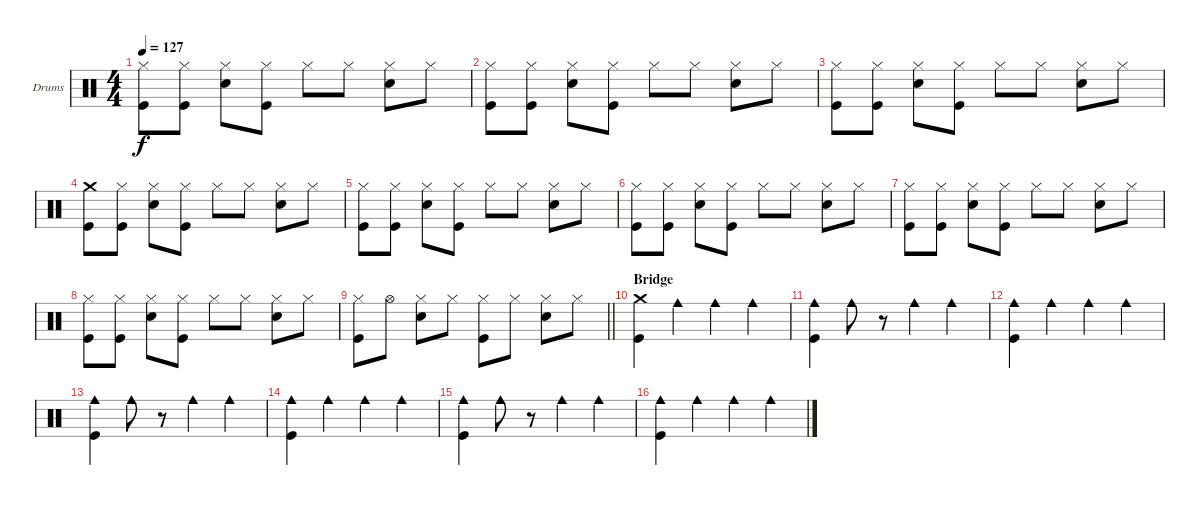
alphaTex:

\bracketExtendMode groupsimilarinstruments
\firstSystemTrackNameOrientation horizontal
\otherSystemsTrackNameOrientation horizontal
\track ("Drumkit" "Drums") {instrument percussion}
\staff {score}
\articulation defaults
\ts (4 4)
\tempo 127
\clef neutral
\ks c
("Hi-Hat (closed)" "Kick (hit)").8{dy f} ("Hi-Hat (closed)" "Kick (hit)").8 ("Hi-Hat (closed)" "Snare (hit) 2").8 ("Hi-Hat (closed)" "Kick (hit)").8 "Hi-Hat (closed)".8 "Hi-Hat (closed)".8 ("Hi-Hat (closed)" "Snare (hit) 2").8 "Hi-Hat (closed)".8 |
("Hi-Hat (closed)" "Kick (hit)").8 ("Hi-Hat (closed)" "Kick (hit)").8 ("Hi-Hat (closed)" "Snare (hit) 2").8 ("Hi-Hat (closed)" "Kick (hit)").8 "Hi-Hat (closed)".8 "Hi-Hat (closed)".8 ("Hi-Hat (closed)" "Snare (hit) 2").8 "Hi-Hat (closed)".8 |
("Hi-Hat (closed)" "Kick (hit)").8 ("Hi-Hat (closed)" "Kick (hit)").8 ("Hi-Hat (closed)" "Snare (hit) 2").8 ("Hi-Hat (closed)" "Kick (hit)").8 "Hi-Hat (closed)".8 "Hi-Hat (closed)".8 ("Hi-Hat (closed)" "Snare (hit) 2").8 "Hi-Hat (closed)".8 |
("Crash medium (hit)" "Kick (hit)").8 ("Hi-Hat (closed)" "Kick (hit)").8 ("Hi-Hat (closed)" "Snare (hit) 2").8 ("Hi-Hat (closed)" "Kick (hit)").8 "Hi-Hat (closed)".8 "Hi-Hat (closed)".8 ("Hi-Hat (closed)" "Snare (hit) 2").8 "Hi-Hat (closed)".8 |
("Hi-Hat (closed)" "Kick (hit)").8 ("Hi-Hat (closed)" "Kick (hit)").8 ("Hi-Hat (closed)" "Snare (hit) 2").8 ("Hi-Hat (closed)" "Kick (hit)").8 "Hi-Hat (closed)".8 "Hi-Hat (closed)".8 ("Hi-Hat (closed)" "Snare (hit) 2").8 "Hi-Hat (closed)".8 |
("Hi-Hat (closed)" "Kick (hit)").8 ("Hi-Hat (closed)" "Kick (hit)").8 ("Hi-Hat (closed)" "Snare (hit) 2").8 ("Hi-Hat (closed)" "Kick (hit)").8 "Hi-Hat (closed)".8 "Hi-Hat (closed)".8 ("Hi-Hat (closed)" "Snare (hit) 2").8 "Hi-Hat (closed)".8 |
("Hi-Hat (closed)" "Kick (hit)").8 ("Hi-Hat (closed)" "Kick (hit)").8 ("Hi-Hat (closed)" "Snare (hit) 2").8 ("Hi-Hat (closed)" "Kick (hit)").8 "Hi-Hat (closed)".8 "Hi-Hat (closed)".8 ("Hi-Hat (closed)" "Snare (hit) 2").8 "Hi-Hat (closed)".8 |
("Hi-Hat (closed)" "Kick (hit)").8 ("Hi-Hat (closed)" "Kick (hit)").8 ("Hi-Hat (closed)" "Snare (hit) 2").8 ("Hi-Hat (closed)" "Kick (hit)").8 "Hi-Hat (closed)".8 "Hi-Hat (closed)".8 ("Hi-Hat (closed)" "Snare (hit) 2").8 "Hi-Hat (closed)".8 |
\barLineRight lightlight
("Hi-Hat (closed)" "Kick (hit)").8 "Hi-Hat (open)".8 ("Hi-Hat (closed)" "Snare (hit) 2").8 "Hi-Hat (closed)".8 ("Hi-Hat (closed)" "Kick (hit)").8 "Hi-Hat (closed)".8 ("Hi-Hat (closed)" "Snare (hit) 2").8 "Hi-Hat (closed)".8 |
\section ("" "Bridge")
("Crash medium (hit)" "Kick (hit)").4 "Cowbell medium (hit)".4 "Cowbell medium (hit)".4 "Cowbell medium (hit)".4 |
("Cowbell medium (hit)" "Kick (hit)").4 "Cowbell medium (hit)".8 r.8 "Cowbell medium (hit)".4 "Cowbell medium (hit)".4 |
("Cowbell medium (hit)" "Kick (hit)").4 "Cowbell medium (hit)".4 "Cowbell medium (hit)".4 "Cowbell medium (hit)".4 |
("Cowbell medium (hit)" "Kick (hit)").4 "Cowbell medium (hit)".8 r.8 "Cowbell medium (hit)".4 "Cowbell medium (hit)".4 |
("Cowbell medium (hit)" "Kick (hit)").4 "Cowbell medium (hit)".4 "Cowbell medium (hit)".4 "Cowbell medium (hit)".4 |
("Cowbell medium (hit)" "Kick (hit)").4 "Cowbell medium (hit)".8 r.8 "Cowbell medium (hit)".4 "Cowbell medium (hit)".4 |
("Cowbell medium (hit)" "Kick (hit)").4 "Cowbell medium (hit)".4 "Cowbell medium (hit)".4 "Cowbell medium (hit)".4
